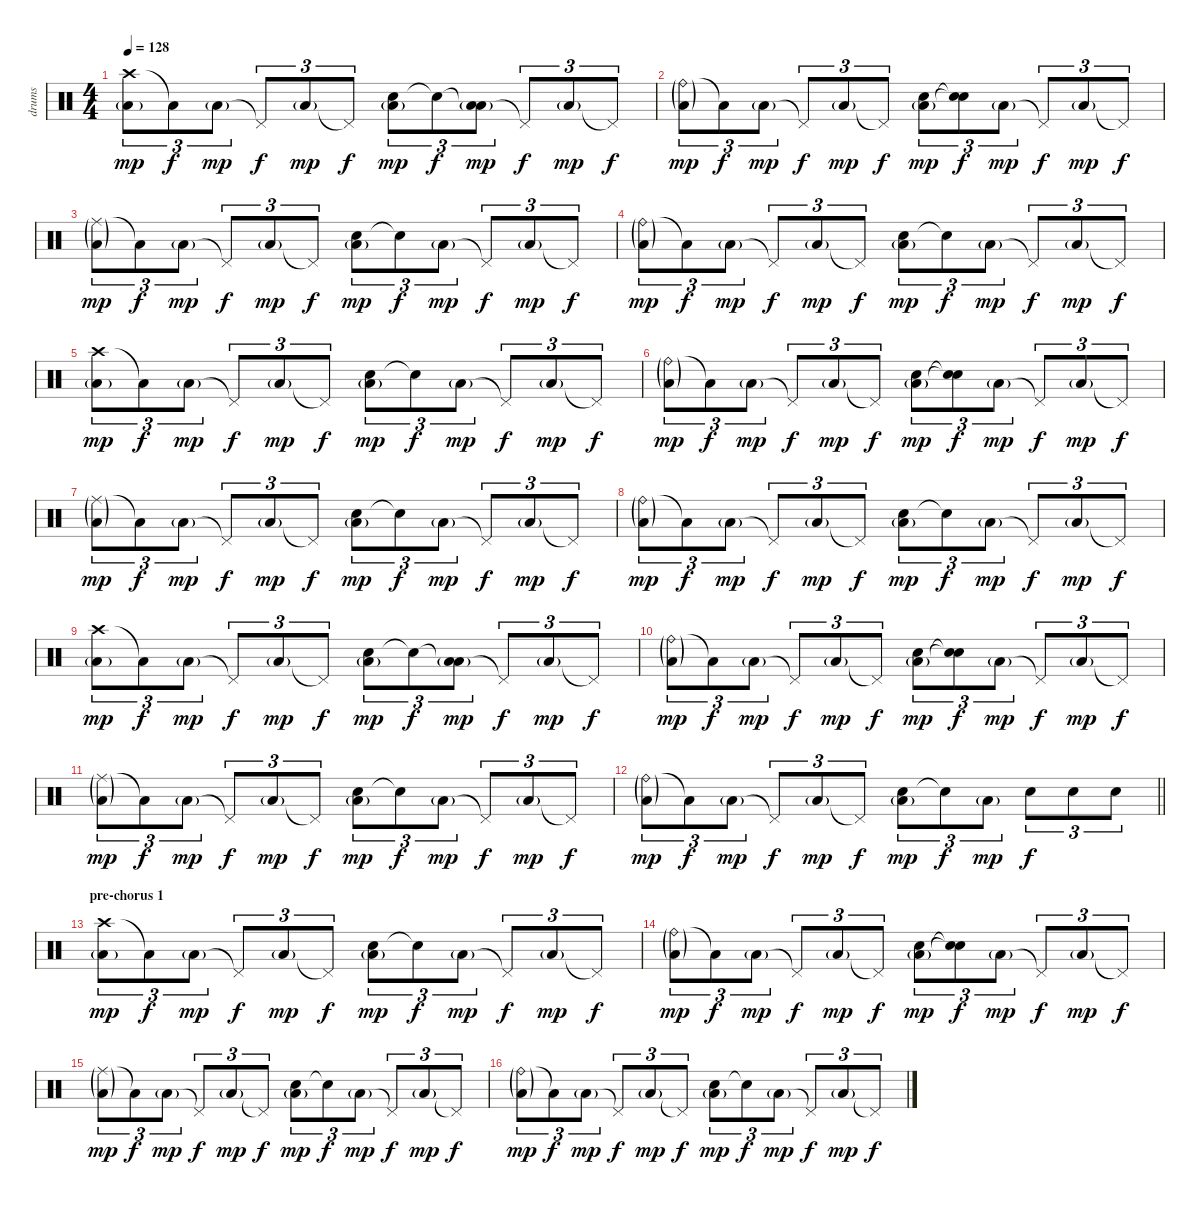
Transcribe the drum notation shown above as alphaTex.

\track ("drums" "drums") {instrument percussion}
\staff {score}
\articulation defaults
\ts (4 4)
\tempo 128
\clef neutral
\ks c
("Crash high (hit)" "Low Floor Tom (hit)"{g}).8{tu (3 2) dy mp} "Low Floor Tom (hit)"{t}.8{tu (3 2) dy f} "Low Floor Tom (hit)"{g}.8{tu (3 2) dy mp} "Pedal Hi-Hat (hit)"{t}.8{tu (3 2) dy f} "Low Floor Tom (hit)"{g}.8{tu (3 2) dy mp} "Pedal Hi-Hat (hit)"{t}.8{tu (3 2) dy f} ("Electric Snare (hit)" "Low Floor Tom (hit)"{g}).8{tu (3 2) dy mp} "Electric Snare (hit)"{t}.8{tu (3 2) dy f} ("Low Floor Tom (hit)"{t} "Low Floor Tom (hit)"{g}).8{tu (3 2) dy mp} "Pedal Hi-Hat (hit)"{t}.8{tu (3 2) dy f} "Low Floor Tom (hit)"{g}.8{tu (3 2) dy mp} "Pedal Hi-Hat (hit)"{t}.8{tu (3 2) dy f} |
("Ride (bell)"{g} "Low Floor Tom (hit)"{g}).8{tu (3 2) dy mp} "Low Floor Tom (hit)"{t}.8{tu (3 2) dy f} "Low Floor Tom (hit)"{g}.8{tu (3 2) dy mp} "Pedal Hi-Hat (hit)"{t}.8{tu (3 2) dy f} "Low Floor Tom (hit)"{g}.8{tu (3 2) dy mp} "Pedal Hi-Hat (hit)"{t}.8{tu (3 2) dy f} ("Electric Snare (hit)" "Low Floor Tom (hit)"{g}).8{tu (3 2) dy mp} ("Electric Snare (hit)"{t} "Snare (hit)"{t}).8{tu (3 2) dy f} "Low Floor Tom (hit)"{g}.8{tu (3 2) dy mp} "Pedal Hi-Hat (hit)"{t}.8{tu (3 2) dy f} "Low Floor Tom (hit)"{g}.8{tu (3 2) dy mp} "Pedal Hi-Hat (hit)"{t}.8{tu (3 2) dy f} |
("Ride (middle)"{g} "Low Floor Tom (hit)"{g}).8{tu (3 2) dy mp} "Low Floor Tom (hit)"{t}.8{tu (3 2) dy f} "Low Floor Tom (hit)"{g}.8{tu (3 2) dy mp} "Pedal Hi-Hat (hit)"{t}.8{tu (3 2) dy f} "Low Floor Tom (hit)"{g}.8{tu (3 2) dy mp} "Pedal Hi-Hat (hit)"{t}.8{tu (3 2) dy f} ("Electric Snare (hit)" "Low Floor Tom (hit)"{g}).8{tu (3 2) dy mp} "Electric Snare (hit)"{t}.8{tu (3 2) dy f} "Low Floor Tom (hit)"{g}.8{tu (3 2) dy mp} "Pedal Hi-Hat (hit)"{t}.8{tu (3 2) dy f} "Low Floor Tom (hit)"{g}.8{tu (3 2) dy mp} "Pedal Hi-Hat (hit)"{t}.8{tu (3 2) dy f} |
("Ride (bell)"{g} "Low Floor Tom (hit)"{g}).8{tu (3 2) dy mp} "Low Floor Tom (hit)"{t}.8{tu (3 2) dy f} "Low Floor Tom (hit)"{g}.8{tu (3 2) dy mp} "Pedal Hi-Hat (hit)"{t}.8{tu (3 2) dy f} "Low Floor Tom (hit)"{g}.8{tu (3 2) dy mp} "Pedal Hi-Hat (hit)"{t}.8{tu (3 2) dy f} ("Electric Snare (hit)" "Low Floor Tom (hit)"{g}).8{tu (3 2) dy mp} "Electric Snare (hit)"{t}.8{tu (3 2) dy f} "Low Floor Tom (hit)"{g}.8{tu (3 2) dy mp} "Pedal Hi-Hat (hit)"{t}.8{tu (3 2) dy f} "Low Floor Tom (hit)"{g}.8{tu (3 2) dy mp} "Pedal Hi-Hat (hit)"{t}.8{tu (3 2) dy f} |
("Crash high (hit)" "Low Floor Tom (hit)"{g}).8{tu (3 2) dy mp} "Low Floor Tom (hit)"{t}.8{tu (3 2) dy f} "Low Floor Tom (hit)"{g}.8{tu (3 2) dy mp} "Pedal Hi-Hat (hit)"{t}.8{tu (3 2) dy f} "Low Floor Tom (hit)"{g}.8{tu (3 2) dy mp} "Pedal Hi-Hat (hit)"{t}.8{tu (3 2) dy f} ("Electric Snare (hit)" "Low Floor Tom (hit)"{g}).8{tu (3 2) dy mp} "Electric Snare (hit)"{t}.8{tu (3 2) dy f} "Low Floor Tom (hit)"{g}.8{tu (3 2) dy mp} "Pedal Hi-Hat (hit)"{t}.8{tu (3 2) dy f} "Low Floor Tom (hit)"{g}.8{tu (3 2) dy mp} "Pedal Hi-Hat (hit)"{t}.8{tu (3 2) dy f} |
("Ride (bell)"{g} "Low Floor Tom (hit)"{g}).8{tu (3 2) dy mp} "Low Floor Tom (hit)"{t}.8{tu (3 2) dy f} "Low Floor Tom (hit)"{g}.8{tu (3 2) dy mp} "Pedal Hi-Hat (hit)"{t}.8{tu (3 2) dy f} "Low Floor Tom (hit)"{g}.8{tu (3 2) dy mp} "Pedal Hi-Hat (hit)"{t}.8{tu (3 2) dy f} ("Electric Snare (hit)" "Low Floor Tom (hit)"{g}).8{tu (3 2) dy mp} ("Electric Snare (hit)"{t} "Snare (hit)"{t}).8{tu (3 2) dy f} "Low Floor Tom (hit)"{g}.8{tu (3 2) dy mp} "Pedal Hi-Hat (hit)"{t}.8{tu (3 2) dy f} "Low Floor Tom (hit)"{g}.8{tu (3 2) dy mp} "Pedal Hi-Hat (hit)"{t}.8{tu (3 2) dy f} |
("Ride (middle)"{g} "Low Floor Tom (hit)"{g}).8{tu (3 2) dy mp} "Low Floor Tom (hit)"{t}.8{tu (3 2) dy f} "Low Floor Tom (hit)"{g}.8{tu (3 2) dy mp} "Pedal Hi-Hat (hit)"{t}.8{tu (3 2) dy f} "Low Floor Tom (hit)"{g}.8{tu (3 2) dy mp} "Pedal Hi-Hat (hit)"{t}.8{tu (3 2) dy f} ("Electric Snare (hit)" "Low Floor Tom (hit)"{g}).8{tu (3 2) dy mp} "Electric Snare (hit)"{t}.8{tu (3 2) dy f} "Low Floor Tom (hit)"{g}.8{tu (3 2) dy mp} "Pedal Hi-Hat (hit)"{t}.8{tu (3 2) dy f} "Low Floor Tom (hit)"{g}.8{tu (3 2) dy mp} "Pedal Hi-Hat (hit)"{t}.8{tu (3 2) dy f} |
("Ride (bell)"{g} "Low Floor Tom (hit)"{g}).8{tu (3 2) dy mp} "Low Floor Tom (hit)"{t}.8{tu (3 2) dy f} "Low Floor Tom (hit)"{g}.8{tu (3 2) dy mp} "Pedal Hi-Hat (hit)"{t}.8{tu (3 2) dy f} "Low Floor Tom (hit)"{g}.8{tu (3 2) dy mp} "Pedal Hi-Hat (hit)"{t}.8{tu (3 2) dy f} ("Electric Snare (hit)" "Low Floor Tom (hit)"{g}).8{tu (3 2) dy mp} "Electric Snare (hit)"{t}.8{tu (3 2) dy f} "Low Floor Tom (hit)"{g}.8{tu (3 2) dy mp} "Pedal Hi-Hat (hit)"{t}.8{tu (3 2) dy f} "Low Floor Tom (hit)"{g}.8{tu (3 2) dy mp} "Pedal Hi-Hat (hit)"{t}.8{tu (3 2) dy f} |
("Crash high (hit)" "Low Floor Tom (hit)"{g}).8{tu (3 2) dy mp} "Low Floor Tom (hit)"{t}.8{tu (3 2) dy f} "Low Floor Tom (hit)"{g}.8{tu (3 2) dy mp} "Pedal Hi-Hat (hit)"{t}.8{tu (3 2) dy f} "Low Floor Tom (hit)"{g}.8{tu (3 2) dy mp} "Pedal Hi-Hat (hit)"{t}.8{tu (3 2) dy f} ("Electric Snare (hit)" "Low Floor Tom (hit)"{g}).8{tu (3 2) dy mp} "Electric Snare (hit)"{t}.8{tu (3 2) dy f} ("Low Floor Tom (hit)"{t} "Low Floor Tom (hit)"{g}).8{tu (3 2) dy mp} "Pedal Hi-Hat (hit)"{t}.8{tu (3 2) dy f} "Low Floor Tom (hit)"{g}.8{tu (3 2) dy mp} "Pedal Hi-Hat (hit)"{t}.8{tu (3 2) dy f} |
("Ride (bell)"{g} "Low Floor Tom (hit)"{g}).8{tu (3 2) dy mp} "Low Floor Tom (hit)"{t}.8{tu (3 2) dy f} "Low Floor Tom (hit)"{g}.8{tu (3 2) dy mp} "Pedal Hi-Hat (hit)"{t}.8{tu (3 2) dy f} "Low Floor Tom (hit)"{g}.8{tu (3 2) dy mp} "Pedal Hi-Hat (hit)"{t}.8{tu (3 2) dy f} ("Electric Snare (hit)" "Low Floor Tom (hit)"{g}).8{tu (3 2) dy mp} ("Electric Snare (hit)"{t} "Snare (hit)"{t}).8{tu (3 2) dy f} "Low Floor Tom (hit)"{g}.8{tu (3 2) dy mp} "Pedal Hi-Hat (hit)"{t}.8{tu (3 2) dy f} "Low Floor Tom (hit)"{g}.8{tu (3 2) dy mp} "Pedal Hi-Hat (hit)"{t}.8{tu (3 2) dy f} |
("Ride (middle)"{g} "Low Floor Tom (hit)"{g}).8{tu (3 2) dy mp} "Low Floor Tom (hit)"{t}.8{tu (3 2) dy f} "Low Floor Tom (hit)"{g}.8{tu (3 2) dy mp} "Pedal Hi-Hat (hit)"{t}.8{tu (3 2) dy f} "Low Floor Tom (hit)"{g}.8{tu (3 2) dy mp} "Pedal Hi-Hat (hit)"{t}.8{tu (3 2) dy f} ("Electric Snare (hit)" "Low Floor Tom (hit)"{g}).8{tu (3 2) dy mp} "Electric Snare (hit)"{t}.8{tu (3 2) dy f} "Low Floor Tom (hit)"{g}.8{tu (3 2) dy mp} "Pedal Hi-Hat (hit)"{t}.8{tu (3 2) dy f} "Low Floor Tom (hit)"{g}.8{tu (3 2) dy mp} "Pedal Hi-Hat (hit)"{t}.8{tu (3 2) dy f} |
\barLineRight lightlight
("Ride (bell)"{g} "Low Floor Tom (hit)"{g}).8{tu (3 2) dy mp} "Low Floor Tom (hit)"{t}.8{tu (3 2) dy f} "Low Floor Tom (hit)"{g}.8{tu (3 2) dy mp} "Pedal Hi-Hat (hit)"{t}.8{tu (3 2) dy f} "Low Floor Tom (hit)"{g}.8{tu (3 2) dy mp} "Pedal Hi-Hat (hit)"{t}.8{tu (3 2) dy f} ("Electric Snare (hit)" "Low Floor Tom (hit)"{g}).8{tu (3 2) dy mp} "Electric Snare (hit)"{t}.8{tu (3 2) dy f} "Low Floor Tom (hit)"{g}.8{tu (3 2) dy mp} "Electric Snare (hit)".8{tu (3 2) dy f} "Electric Snare (hit)".8{tu (3 2)} "Electric Snare (hit)".8{tu (3 2)} |
\section ("" "pre-chorus 1")
("Crash high (hit)" "Low Floor Tom (hit)"{g}).8{tu (3 2) dy mp} "Low Floor Tom (hit)"{t}.8{tu (3 2) dy f} "Low Floor Tom (hit)"{g}.8{tu (3 2) dy mp} "Pedal Hi-Hat (hit)"{t}.8{tu (3 2) dy f} "Low Floor Tom (hit)"{g}.8{tu (3 2) dy mp} "Pedal Hi-Hat (hit)"{t}.8{tu (3 2) dy f} ("Electric Snare (hit)" "Low Floor Tom (hit)"{g}).8{tu (3 2) dy mp} "Electric Snare (hit)"{t}.8{tu (3 2) dy f} "Low Floor Tom (hit)"{g}.8{tu (3 2) dy mp} "Pedal Hi-Hat (hit)"{t}.8{tu (3 2) dy f} "Low Floor Tom (hit)"{g}.8{tu (3 2) dy mp} "Pedal Hi-Hat (hit)"{t}.8{tu (3 2) dy f} |
("Ride (bell)"{g} "Low Floor Tom (hit)"{g}).8{tu (3 2) dy mp} "Low Floor Tom (hit)"{t}.8{tu (3 2) dy f} "Low Floor Tom (hit)"{g}.8{tu (3 2) dy mp} "Pedal Hi-Hat (hit)"{t}.8{tu (3 2) dy f} "Low Floor Tom (hit)"{g}.8{tu (3 2) dy mp} "Pedal Hi-Hat (hit)"{t}.8{tu (3 2) dy f} ("Electric Snare (hit)" "Low Floor Tom (hit)"{g}).8{tu (3 2) dy mp} ("Electric Snare (hit)"{t} "Snare (hit)"{t}).8{tu (3 2) dy f} "Low Floor Tom (hit)"{g}.8{tu (3 2) dy mp} "Pedal Hi-Hat (hit)"{t}.8{tu (3 2) dy f} "Low Floor Tom (hit)"{g}.8{tu (3 2) dy mp} "Pedal Hi-Hat (hit)"{t}.8{tu (3 2) dy f} |
("Ride (middle)"{g} "Low Floor Tom (hit)"{g}).8{tu (3 2) dy mp} "Low Floor Tom (hit)"{t}.8{tu (3 2) dy f} "Low Floor Tom (hit)"{g}.8{tu (3 2) dy mp} "Pedal Hi-Hat (hit)"{t}.8{tu (3 2) dy f} "Low Floor Tom (hit)"{g}.8{tu (3 2) dy mp} "Pedal Hi-Hat (hit)"{t}.8{tu (3 2) dy f} ("Electric Snare (hit)" "Low Floor Tom (hit)"{g}).8{tu (3 2) dy mp} "Electric Snare (hit)"{t}.8{tu (3 2) dy f} "Low Floor Tom (hit)"{g}.8{tu (3 2) dy mp} "Pedal Hi-Hat (hit)"{t}.8{tu (3 2) dy f} "Low Floor Tom (hit)"{g}.8{tu (3 2) dy mp} "Pedal Hi-Hat (hit)"{t}.8{tu (3 2) dy f} |
("Ride (bell)"{g} "Low Floor Tom (hit)"{g}).8{tu (3 2) dy mp} "Low Floor Tom (hit)"{t}.8{tu (3 2) dy f} "Low Floor Tom (hit)"{g}.8{tu (3 2) dy mp} "Pedal Hi-Hat (hit)"{t}.8{tu (3 2) dy f} "Low Floor Tom (hit)"{g}.8{tu (3 2) dy mp} "Pedal Hi-Hat (hit)"{t}.8{tu (3 2) dy f} ("Electric Snare (hit)" "Low Floor Tom (hit)"{g}).8{tu (3 2) dy mp} "Electric Snare (hit)"{t}.8{tu (3 2) dy f} "Low Floor Tom (hit)"{g}.8{tu (3 2) dy mp} "Pedal Hi-Hat (hit)"{t}.8{tu (3 2) dy f} "Low Floor Tom (hit)"{g}.8{tu (3 2) dy mp} "Pedal Hi-Hat (hit)"{t}.8{tu (3 2) dy f}
